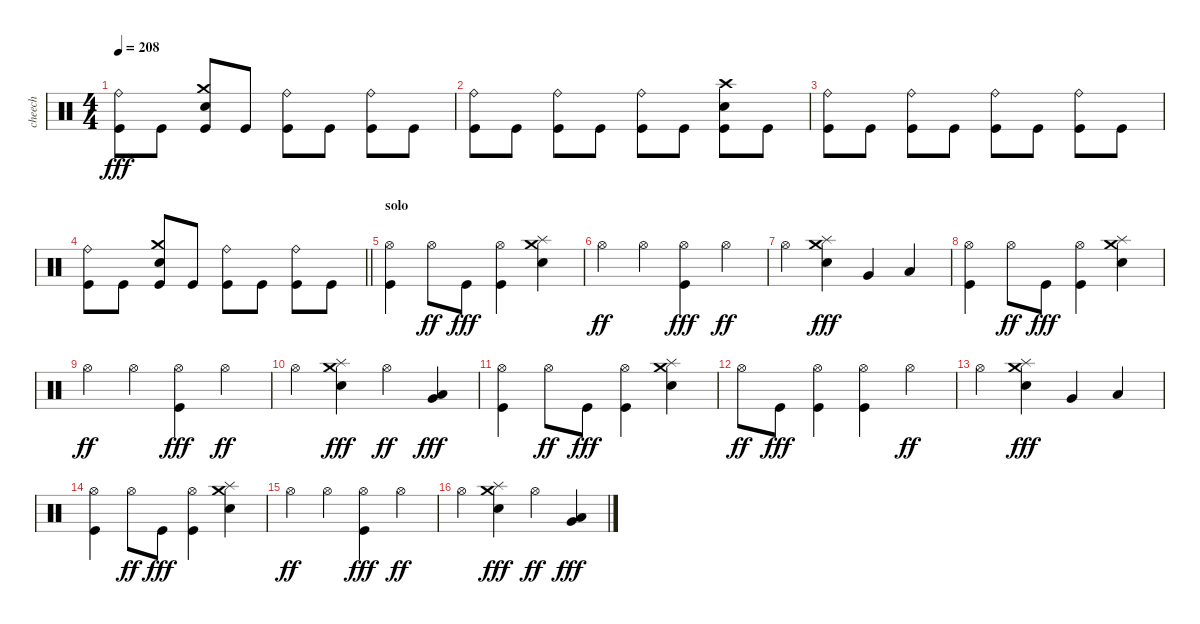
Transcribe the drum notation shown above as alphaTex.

\track ("cheech" "cheech") {instrument percussion}
\staff {score}
\articulation defaults
\ts (4 4)
\tempo 208
\clef neutral
\ks c
("Ride (bell)" "Kick (hit)").8{dy fff} "Kick (hit)".8 ("Crash medium (hit)" "Electric Snare (hit)" "Kick (hit)").8 "Kick (hit)".8 ("Ride (bell)" "Kick (hit)").8 "Kick (hit)".8 ("Ride (bell)" "Kick (hit)").8 "Kick (hit)".8 |
("Ride (bell)" "Kick (hit)").8 "Kick (hit)".8 ("Ride (bell)" "Kick (hit)").8 "Kick (hit)".8 ("Ride (bell)" "Kick (hit)").8 "Kick (hit)".8 ("Crash high (hit)" "Electric Snare (hit)" "Kick (hit)").8 "Kick (hit)".8 |
("Ride (bell)" "Kick (hit)").8 "Kick (hit)".8 ("Ride (bell)" "Kick (hit)").8 "Kick (hit)".8 ("Ride (bell)" "Kick (hit)").8 "Kick (hit)".8 ("Ride (bell)" "Kick (hit)").8 "Kick (hit)".8 |
\barLineRight lightlight
("Ride (bell)" "Kick (hit)").8 "Kick (hit)".8 ("Crash medium (hit)" "Electric Snare (hit)" "Kick (hit)").8 "Kick (hit)".8 ("Ride (bell)" "Kick (hit)").8 "Kick (hit)".8 ("Ride (bell)" "Kick (hit)").8 "Kick (hit)".8 |
\section ("" "solo")
("Hi-Hat (open)" "Kick (hit)").4 "Hi-Hat (open)".8{dy ff} "Kick (hit)".8{dy fff} ("Hi-Hat (open)" "Kick (hit)").4 ("Crash medium (hit)" "Splash (hit)" "Electric Snare (hit)").4 |
"Hi-Hat (open)".4{dy ff} "Hi-Hat (open)".4 ("Hi-Hat (open)" "Kick (hit)").4{dy fff} "Hi-Hat (open)".4{dy ff} |
"Hi-Hat (open)".4 ("Crash medium (hit)" "Splash (hit)" "Electric Snare (hit)").4{dy fff} "Very Low Tom (hit)".4 "Low Floor Tom (hit)".4 |
("Hi-Hat (open)" "Kick (hit)").4 "Hi-Hat (open)".8{dy ff} "Kick (hit)".8{dy fff} ("Hi-Hat (open)" "Kick (hit)").4 ("Crash medium (hit)" "Splash (hit)" "Electric Snare (hit)").4 |
"Hi-Hat (open)".4{dy ff} "Hi-Hat (open)".4 ("Hi-Hat (open)" "Kick (hit)").4{dy fff} "Hi-Hat (open)".4{dy ff} |
"Hi-Hat (open)".4 ("Crash medium (hit)" "Splash (hit)" "Electric Snare (hit)").4{dy fff} "Hi-Hat (open)".4{dy ff} ("Very Low Tom (hit)" "Low Floor Tom (hit)").4{dy fff} |
("Hi-Hat (open)" "Kick (hit)").4 "Hi-Hat (open)".8{dy ff} "Kick (hit)".8{dy fff} ("Hi-Hat (open)" "Kick (hit)").4 ("Crash medium (hit)" "Splash (hit)" "Electric Snare (hit)").4 |
"Hi-Hat (open)".8{dy ff} "Kick (hit)".8{dy fff} ("Hi-Hat (open)" "Kick (hit)").4 ("Hi-Hat (open)" "Kick (hit)").4 "Hi-Hat (open)".4{dy ff} |
"Hi-Hat (open)".4 ("Crash medium (hit)" "Splash (hit)" "Electric Snare (hit)").4{dy fff} "Very Low Tom (hit)".4 "Low Floor Tom (hit)".4 |
("Hi-Hat (open)" "Kick (hit)").4 "Hi-Hat (open)".8{dy ff} "Kick (hit)".8{dy fff} ("Hi-Hat (open)" "Kick (hit)").4 ("Crash medium (hit)" "Splash (hit)" "Electric Snare (hit)").4 |
"Hi-Hat (open)".4{dy ff} "Hi-Hat (open)".4 ("Hi-Hat (open)" "Kick (hit)").4{dy fff} "Hi-Hat (open)".4{dy ff} |
"Hi-Hat (open)".4 ("Crash medium (hit)" "Splash (hit)" "Electric Snare (hit)").4{dy fff} "Hi-Hat (open)".4{dy ff} ("Very Low Tom (hit)" "Low Floor Tom (hit)").4{dy fff}
